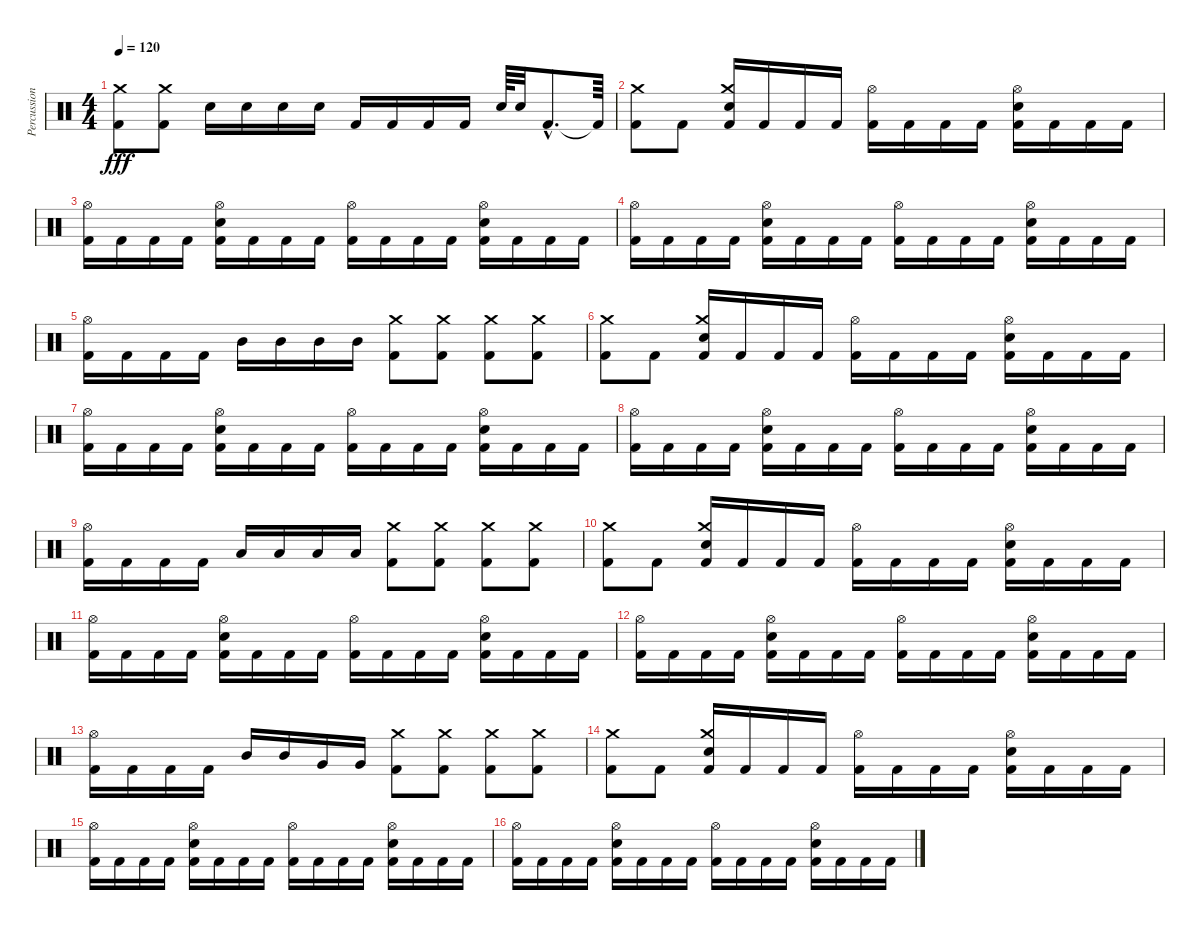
\track ("Percussion" "Percussion") {instrument percussion}
\staff {score}
\articulation defaults
\ts (4 4)
\tempo 120
\clef neutral
\ks c
("Kick (hit) 2" "Crash medium (hit)").8{dy fff} ("Kick (hit) 2" "Crash medium (hit)").8 "Electric Snare (hit)".16 "Electric Snare (hit)".16 "Electric Snare (hit)".16 "Electric Snare (hit)".16 "Kick (hit) 2".16 "Kick (hit) 2".16 "Kick (hit) 2".16 "Kick (hit) 2".16 "Electric Snare (hit)".64 "Electric Snare (hit)".32 "Kick (hit) 2"{hac}.8{d} "Kick (hit) 2"{t}.64 |
("Kick (hit) 2" "Crash medium (hit)").8 "Kick (hit) 2".8 ("Kick (hit) 2" "Electric Snare (hit)" "Crash medium (hit)").16 "Kick (hit) 2".16 "Kick (hit) 2".16 "Kick (hit) 2".16 ("Kick (hit) 2" "Hi-Hat (open)").16 "Kick (hit) 2".16 "Kick (hit) 2".16 "Kick (hit) 2".16 ("Kick (hit) 2" "Electric Snare (hit)" "Hi-Hat (open)").16 "Kick (hit) 2".16 "Kick (hit) 2".16 "Kick (hit) 2".16 |
("Kick (hit) 2" "Hi-Hat (open)").16 "Kick (hit) 2".16 "Kick (hit) 2".16 "Kick (hit) 2".16 ("Kick (hit) 2" "Electric Snare (hit)" "Hi-Hat (open)").16 "Kick (hit) 2".16 "Kick (hit) 2".16 "Kick (hit) 2".16 ("Kick (hit) 2" "Hi-Hat (open)").16 "Kick (hit) 2".16 "Kick (hit) 2".16 "Kick (hit) 2".16 ("Kick (hit) 2" "Electric Snare (hit)" "Hi-Hat (open)").16 "Kick (hit) 2".16 "Kick (hit) 2".16 "Kick (hit) 2".16 |
("Kick (hit) 2" "Hi-Hat (open)").16 "Kick (hit) 2".16 "Kick (hit) 2".16 "Kick (hit) 2".16 ("Kick (hit) 2" "Electric Snare (hit)" "Hi-Hat (open)").16 "Kick (hit) 2".16 "Kick (hit) 2".16 "Kick (hit) 2".16 ("Kick (hit) 2" "Hi-Hat (open)").16 "Kick (hit) 2".16 "Kick (hit) 2".16 "Kick (hit) 2".16 ("Kick (hit) 2" "Electric Snare (hit)" "Hi-Hat (open)").16 "Kick (hit) 2".16 "Kick (hit) 2".16 "Kick (hit) 2".16 |
("Kick (hit) 2" "Hi-Hat (open)").16 "Kick (hit) 2".16 "Kick (hit) 2".16 "Kick (hit) 2".16 "Mid Tom (hit)".16 "Mid Tom (hit)".16 "Mid Tom (hit)".16 "Mid Tom (hit)".16 ("Kick (hit) 2" "Crash medium (hit)").8 ("Kick (hit) 2" "Crash medium (hit)").8 ("Kick (hit) 2" "Crash medium (hit)").8 ("Kick (hit) 2" "Crash medium (hit)").8 |
("Kick (hit) 2" "Crash medium (hit)").8 "Kick (hit) 2".8 ("Kick (hit) 2" "Electric Snare (hit)" "Crash medium (hit)").16 "Kick (hit) 2".16 "Kick (hit) 2".16 "Kick (hit) 2".16 ("Kick (hit) 2" "Hi-Hat (open)").16 "Kick (hit) 2".16 "Kick (hit) 2".16 "Kick (hit) 2".16 ("Kick (hit) 2" "Electric Snare (hit)" "Hi-Hat (open)").16 "Kick (hit) 2".16 "Kick (hit) 2".16 "Kick (hit) 2".16 |
("Kick (hit) 2" "Hi-Hat (open)").16 "Kick (hit) 2".16 "Kick (hit) 2".16 "Kick (hit) 2".16 ("Kick (hit) 2" "Electric Snare (hit)" "Hi-Hat (open)").16 "Kick (hit) 2".16 "Kick (hit) 2".16 "Kick (hit) 2".16 ("Kick (hit) 2" "Hi-Hat (open)").16 "Kick (hit) 2".16 "Kick (hit) 2".16 "Kick (hit) 2".16 ("Kick (hit) 2" "Electric Snare (hit)" "Hi-Hat (open)").16 "Kick (hit) 2".16 "Kick (hit) 2".16 "Kick (hit) 2".16 |
("Kick (hit) 2" "Hi-Hat (open)").16 "Kick (hit) 2".16 "Kick (hit) 2".16 "Kick (hit) 2".16 ("Kick (hit) 2" "Electric Snare (hit)" "Hi-Hat (open)").16 "Kick (hit) 2".16 "Kick (hit) 2".16 "Kick (hit) 2".16 ("Kick (hit) 2" "Hi-Hat (open)").16 "Kick (hit) 2".16 "Kick (hit) 2".16 "Kick (hit) 2".16 ("Kick (hit) 2" "Electric Snare (hit)" "Hi-Hat (open)").16 "Kick (hit) 2".16 "Kick (hit) 2".16 "Kick (hit) 2".16 |
("Kick (hit) 2" "Hi-Hat (open)").16 "Kick (hit) 2".16 "Kick (hit) 2".16 "Kick (hit) 2".16 "Low Tom (hit)".16 "Low Tom (hit)".16 "Low Tom (hit)".16 "Low Tom (hit)".16 ("Kick (hit) 2" "Crash medium (hit)").8 ("Kick (hit) 2" "Crash medium (hit)").8 ("Kick (hit) 2" "Crash medium (hit)").8 ("Kick (hit) 2" "Crash medium (hit)").8 |
("Kick (hit) 2" "Crash medium (hit)").8 "Kick (hit) 2".8 ("Kick (hit) 2" "Electric Snare (hit)" "Crash medium (hit)").16 "Kick (hit) 2".16 "Kick (hit) 2".16 "Kick (hit) 2".16 ("Kick (hit) 2" "Hi-Hat (open)").16 "Kick (hit) 2".16 "Kick (hit) 2".16 "Kick (hit) 2".16 ("Kick (hit) 2" "Electric Snare (hit)" "Hi-Hat (open)").16 "Kick (hit) 2".16 "Kick (hit) 2".16 "Kick (hit) 2".16 |
("Kick (hit) 2" "Hi-Hat (open)").16 "Kick (hit) 2".16 "Kick (hit) 2".16 "Kick (hit) 2".16 ("Kick (hit) 2" "Electric Snare (hit)" "Hi-Hat (open)").16 "Kick (hit) 2".16 "Kick (hit) 2".16 "Kick (hit) 2".16 ("Kick (hit) 2" "Hi-Hat (open)").16 "Kick (hit) 2".16 "Kick (hit) 2".16 "Kick (hit) 2".16 ("Kick (hit) 2" "Electric Snare (hit)" "Hi-Hat (open)").16 "Kick (hit) 2".16 "Kick (hit) 2".16 "Kick (hit) 2".16 |
("Kick (hit) 2" "Hi-Hat (open)").16 "Kick (hit) 2".16 "Kick (hit) 2".16 "Kick (hit) 2".16 ("Kick (hit) 2" "Electric Snare (hit)" "Hi-Hat (open)").16 "Kick (hit) 2".16 "Kick (hit) 2".16 "Kick (hit) 2".16 ("Kick (hit) 2" "Hi-Hat (open)").16 "Kick (hit) 2".16 "Kick (hit) 2".16 "Kick (hit) 2".16 ("Kick (hit) 2" "Electric Snare (hit)" "Hi-Hat (open)").16 "Kick (hit) 2".16 "Kick (hit) 2".16 "Kick (hit) 2".16 |
("Kick (hit) 2" "Hi-Hat (open)").16 "Kick (hit) 2".16 "Kick (hit) 2".16 "Kick (hit) 2".16 "Mid Tom (hit)".16 "Mid Tom (hit)".16 "Very Low Tom (hit)".16 "Very Low Tom (hit)".16 ("Kick (hit) 2" "Crash medium (hit)").8 ("Kick (hit) 2" "Crash medium (hit)").8 ("Kick (hit) 2" "Crash medium (hit)").8 ("Kick (hit) 2" "Crash medium (hit)").8 |
("Kick (hit) 2" "Crash medium (hit)").8 "Kick (hit) 2".8 ("Kick (hit) 2" "Electric Snare (hit)" "Crash medium (hit)").16 "Kick (hit) 2".16 "Kick (hit) 2".16 "Kick (hit) 2".16 ("Kick (hit) 2" "Hi-Hat (open)").16 "Kick (hit) 2".16 "Kick (hit) 2".16 "Kick (hit) 2".16 ("Kick (hit) 2" "Electric Snare (hit)" "Hi-Hat (open)").16 "Kick (hit) 2".16 "Kick (hit) 2".16 "Kick (hit) 2".16 |
("Kick (hit) 2" "Hi-Hat (open)").16 "Kick (hit) 2".16 "Kick (hit) 2".16 "Kick (hit) 2".16 ("Kick (hit) 2" "Electric Snare (hit)" "Hi-Hat (open)").16 "Kick (hit) 2".16 "Kick (hit) 2".16 "Kick (hit) 2".16 ("Kick (hit) 2" "Hi-Hat (open)").16 "Kick (hit) 2".16 "Kick (hit) 2".16 "Kick (hit) 2".16 ("Kick (hit) 2" "Electric Snare (hit)" "Hi-Hat (open)").16 "Kick (hit) 2".16 "Kick (hit) 2".16 "Kick (hit) 2".16 |
("Kick (hit) 2" "Hi-Hat (open)").16 "Kick (hit) 2".16 "Kick (hit) 2".16 "Kick (hit) 2".16 ("Kick (hit) 2" "Electric Snare (hit)" "Hi-Hat (open)").16 "Kick (hit) 2".16 "Kick (hit) 2".16 "Kick (hit) 2".16 ("Kick (hit) 2" "Hi-Hat (open)").16 "Kick (hit) 2".16 "Kick (hit) 2".16 "Kick (hit) 2".16 ("Kick (hit) 2" "Electric Snare (hit)" "Hi-Hat (open)").16 "Kick (hit) 2".16 "Kick (hit) 2".16 "Kick (hit) 2".16
